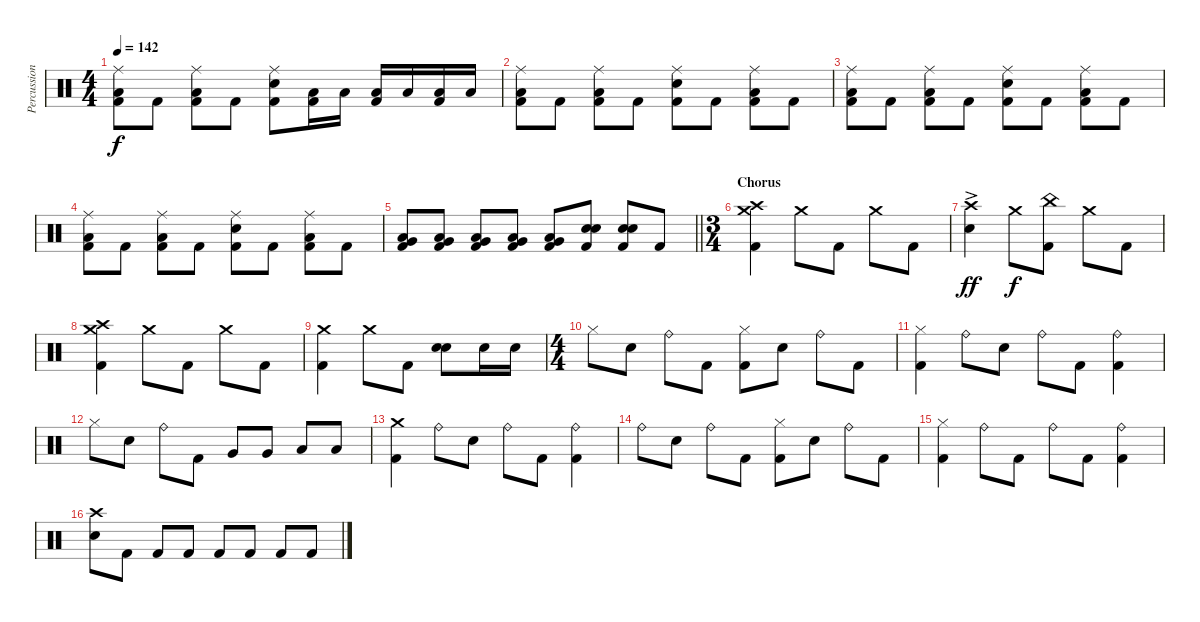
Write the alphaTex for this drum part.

\track ("Percussion" "Percussion") {instrument percussion}
\staff {score}
\articulation defaults
\ts (4 4)
\tempo 142
\clef neutral
\ks c
("Ride (middle)" "Low Floor Tom (hit)" "Kick (hit) 2").8{dy f} "Kick (hit) 2".8 ("Ride (middle)" "Low Floor Tom (hit)" "Kick (hit) 2").8 "Kick (hit) 2".8 ("Ride (middle)" "Electric Snare (hit)" "Kick (hit) 2").8 ("Low Tom (hit)" "Kick (hit) 2").16 "Low Tom (hit)".16 ("Low Tom (hit)" "Kick (hit) 2").16 "Low Tom (hit)".16 ("Low Tom (hit)" "Kick (hit) 2").16 "Low Tom (hit)".16 |
("Ride (middle)" "Low Floor Tom (hit)" "Kick (hit) 2").8 "Kick (hit) 2".8 ("Ride (middle)" "Low Floor Tom (hit)" "Kick (hit) 2").8 "Kick (hit) 2".8 ("Ride (middle)" "Electric Snare (hit)" "Kick (hit) 2").8 "Kick (hit) 2".8 ("Ride (middle)" "Low Floor Tom (hit)" "Kick (hit) 2").8 "Kick (hit) 2".8 |
("Ride (middle)" "Low Floor Tom (hit)" "Kick (hit) 2").8 "Kick (hit) 2".8 ("Ride (middle)" "Low Floor Tom (hit)" "Kick (hit) 2").8 "Kick (hit) 2".8 ("Ride (middle)" "Electric Snare (hit)" "Kick (hit) 2").8 "Kick (hit) 2".8 ("Ride (middle)" "Low Floor Tom (hit)" "Kick (hit) 2").8 "Kick (hit) 2".8 |
("Ride (middle)" "Low Floor Tom (hit)" "Kick (hit) 2").8 "Kick (hit) 2".8 ("Ride (middle)" "Low Floor Tom (hit)" "Kick (hit) 2").8 "Kick (hit) 2".8 ("Ride (middle)" "Electric Snare (hit)" "Kick (hit) 2").8 "Kick (hit) 2".8 ("Ride (middle)" "Low Floor Tom (hit)" "Kick (hit) 2").8 "Kick (hit) 2".8 |
\barLineRight lightlight
("Very Low Tom (hit)" "Low Floor Tom (hit)" "Kick (hit) 2").8 ("Very Low Tom (hit)" "Low Floor Tom (hit)" "Kick (hit) 2").8 ("Very Low Tom (hit)" "Low Floor Tom (hit)" "Kick (hit) 2").8 ("Very Low Tom (hit)" "Low Floor Tom (hit)" "Kick (hit) 2").8 ("Very Low Tom (hit)" "Low Floor Tom (hit)" "Kick (hit) 2").8 ("Electric Snare (hit)" "Electric Snare (hit)" "Kick (hit) 2").8{bd 60} ("Electric Snare (hit)" "Electric Snare (hit)" "Kick (hit) 2").8{bd 60} "Kick (hit) 2".8 |
\ts (3 4)
\section ("" "Chorus")
("Crash high (hit)" "Crash medium (hit)" "Kick (hit) 2").4 "Crash medium (hit)".8 "Kick (hit) 2".8 "Crash medium (hit)".8 "Kick (hit) 2".8 |
("Crash high (hit)"{ac} "Electric Snare (hit)"{ac}).4{dy ff} "Crash medium (hit)".8{dy f} ("China (hit)" "Kick (hit) 2").8 "Crash medium (hit)".8 "Kick (hit) 2".8 |
("Crash high (hit)" "Crash medium (hit)" "Kick (hit) 2").4 "Crash medium (hit)".8 "Kick (hit) 2".8 "Crash medium (hit)".8 "Kick (hit) 2".8 |
("Crash medium (hit)" "Kick (hit) 2").4 "Crash medium (hit)".8 "Kick (hit) 2".8 ("Electric Snare (hit)" "Electric Snare (hit)").8{bd 120} "Electric Snare (hit)".16 "Electric Snare (hit)".16 |
\ts (4 4)
"Hi-Hat (closed)".8 "Electric Snare (hit)".8 "Ride (bell)".8 "Kick (hit) 2".8 ("Hi-Hat (closed)" "Kick (hit) 2").8 "Electric Snare (hit)".8 "Ride (bell)".8 "Kick (hit) 2".8 |
("Hi-Hat (closed)" "Kick (hit) 2").4 "Ride (bell)".8 "Electric Snare (hit)".8 "Ride (bell)".8 "Kick (hit) 2".8 ("Ride (bell)" "Kick (hit) 2").4 |
"Hi-Hat (closed)".8 "Electric Snare (hit)".8 "Ride (bell)".8 "Kick (hit) 2".8 "Very Low Tom (hit)".8 "Very Low Tom (hit)".8 "Low Floor Tom (hit)".8 "Low Floor Tom (hit)".8 |
("Crash medium (hit)" "Kick (hit) 2").4 "Ride (bell)".8 "Electric Snare (hit)".8 "Ride (bell)".8 "Kick (hit) 2".8 ("Ride (bell)" "Kick (hit) 2").4 |
"Ride (bell)".8 "Electric Snare (hit)".8 "Ride (bell)".8 "Kick (hit) 2".8 ("Hi-Hat (closed)" "Kick (hit) 2").8 "Electric Snare (hit)".8 "Ride (bell)".8 "Kick (hit) 2".8 |
("Hi-Hat (closed)" "Kick (hit) 2").4 "Ride (bell)".8 "Kick (hit) 2".8 "Ride (bell)".8 "Kick (hit) 2".8 ("Ride (bell)" "Kick (hit) 2").4 |
("Crash high (hit)" "Electric Snare (hit)").8 "Kick (hit) 2".8 "Kick (hit) 2".8 "Kick (hit) 2".8 "Kick (hit) 2".8 "Kick (hit) 2".8 "Kick (hit) 2".8 "Kick (hit) 2".8
